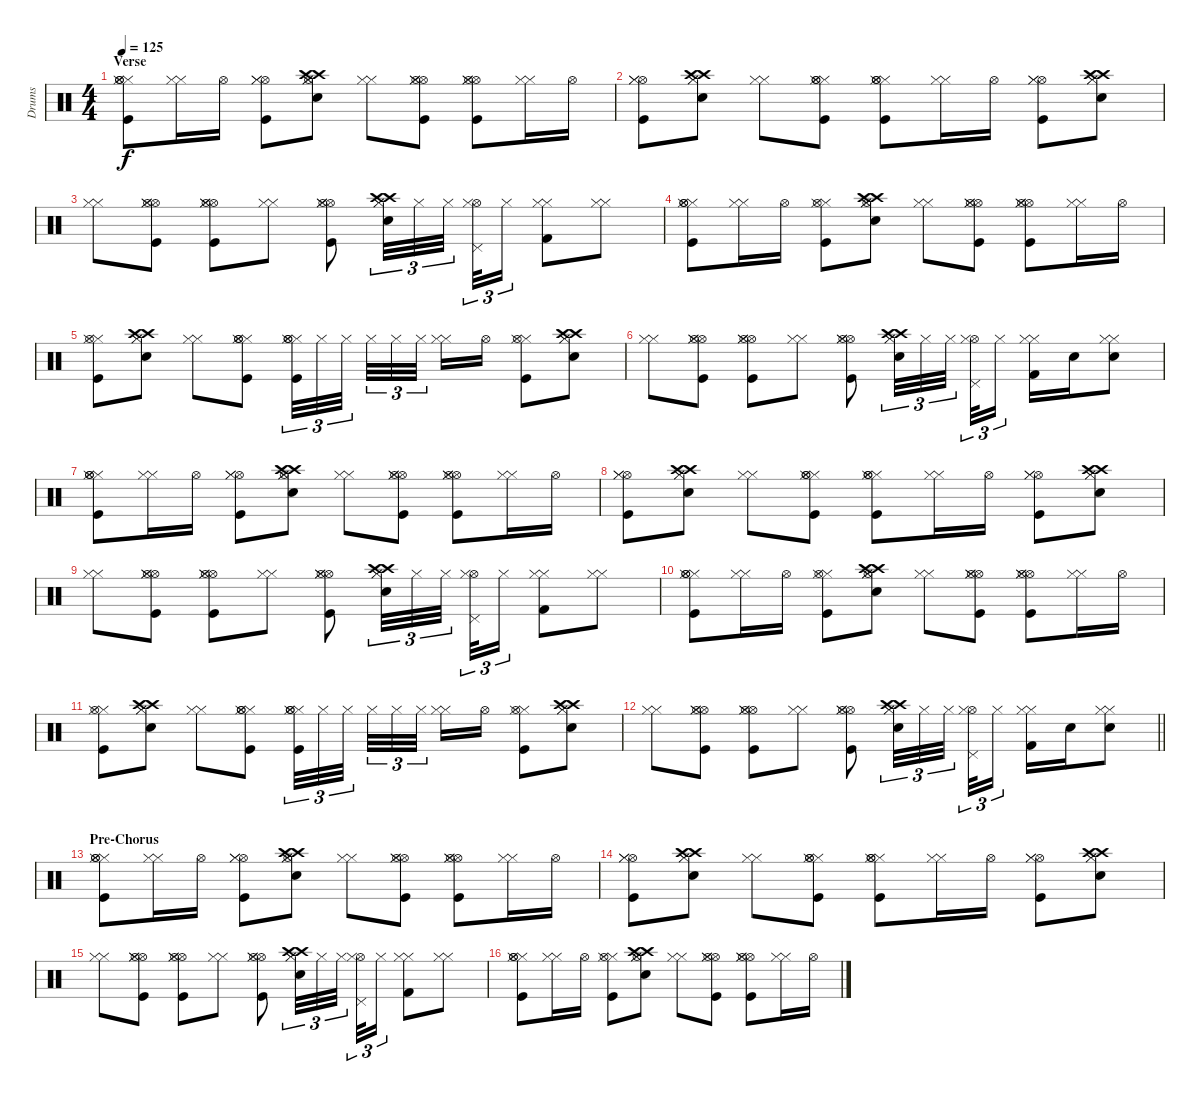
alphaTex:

\track ("Drums" "Drums") {instrument percussion}
\staff {score}
\articulation defaults
\ts (4 4)
\section ("" "Verse")
\tempo 125
\clef neutral
\ks c
("Hi-Hat (closed)" "Hi-Hat (open)" "Kick (hit)" "Hi-Hat (closed)" "Hi-Hat (open)").8{dy f} ("Hi-Hat (closed)" "Hi-Hat (closed)").16 "Hi-Hat (open)".16 ("Hi-Hat (open)" "Kick (hit)" "Hi-Hat (closed)" "Hi-Hat (closed)").8 ("Electric Snare (hit)" "Crash high (hit)" "Hi-Hat (closed)" "Crash high (hit)" "Hi-Hat (closed)" "Hi-Hat (open)").8 ("Hi-Hat (closed)" "Hi-Hat (closed)").8 ("Kick (hit)" "Hi-Hat (open)" "Hi-Hat (closed)" "Hi-Hat (open)" "Hi-Hat (closed)").8 ("Hi-Hat (open)" "Kick (hit)" "Hi-Hat (closed)" "Hi-Hat (open)" "Hi-Hat (closed)").8 ("Hi-Hat (closed)" "Hi-Hat (closed)").16 "Hi-Hat (open)".16 |
("Hi-Hat (open)" "Kick (hit)" "Hi-Hat (closed)" "Hi-Hat (closed)").8 ("Crash high (hit)" "Electric Snare (hit)" "Hi-Hat (closed)" "Crash high (hit)" "Hi-Hat (closed)").8 ("Hi-Hat (closed)" "Hi-Hat (closed)").8 ("Kick (hit)" "Hi-Hat (closed)" "Hi-Hat (open)" "Hi-Hat (closed)" "Hi-Hat (open)").8 ("Hi-Hat (closed)" "Hi-Hat (open)" "Kick (hit)" "Hi-Hat (closed)" "Hi-Hat (open)").8 ("Hi-Hat (closed)" "Hi-Hat (closed)").16 "Hi-Hat (open)".16 ("Hi-Hat (open)" "Kick (hit)" "Hi-Hat (closed)" "Hi-Hat (closed)").8 ("Crash high (hit)" "Hi-Hat (closed)" "Electric Snare (hit)" "Crash high (hit)" "Hi-Hat (closed)").8 |
("Hi-Hat (closed)" "Hi-Hat (closed)").8 ("Kick (hit)" "Hi-Hat (open)" "Hi-Hat (closed)" "Hi-Hat (open)" "Hi-Hat (closed)").8 ("Hi-Hat (open)" "Kick (hit)" "Hi-Hat (closed)" "Hi-Hat (open)" "Hi-Hat (closed)").8 ("Hi-Hat (closed)" "Hi-Hat (closed)").8 ("Kick (hit)" "Hi-Hat (open)" "Hi-Hat (closed)" "Hi-Hat (open)" "Hi-Hat (closed)").8 ("Electric Snare (hit)" "Crash high (hit)" "Hi-Hat (closed)" "Crash high (hit)" "Hi-Hat (closed)").32{tu (3 2)} "Hi-Hat (closed)".32{tu (3 2)} "Hi-Hat (closed)".32{tu (3 2) beam splitsecondary} ("Hi-Hat (open)" "Hi-Hat (closed)" "Pedal Hi-Hat (hit)").32{tu (3 2)} "Hi-Hat (closed)".16{tu (3 2)} ("Kick (hit) 2" "Hi-Hat (closed)" "Hi-Hat (closed)").8 ("Hi-Hat (closed)" "Hi-Hat (closed)").8 |
("Hi-Hat (closed)" "Hi-Hat (open)" "Hi-Hat (closed)" "Hi-Hat (open)" "Kick (hit)").8 ("Hi-Hat (closed)" "Hi-Hat (closed)").16 "Hi-Hat (open)".16 ("Hi-Hat (closed)" "Hi-Hat (open)" "Kick (hit)" "Hi-Hat (closed)").8 ("Crash high (hit)" "Hi-Hat (closed)" "Hi-Hat (open)" "Electric Snare (hit)" "Crash high (hit)" "Hi-Hat (closed)").8 ("Hi-Hat (closed)" "Hi-Hat (closed)").8 ("Hi-Hat (open)" "Hi-Hat (closed)" "Kick (hit)" "Hi-Hat (open)" "Hi-Hat (closed)").8 ("Hi-Hat (open)" "Hi-Hat (closed)" "Hi-Hat (open)" "Kick (hit)" "Hi-Hat (closed)").8 ("Hi-Hat (closed)" "Hi-Hat (closed)").16 "Hi-Hat (open)".16 |
("Hi-Hat (closed)" "Hi-Hat (open)" "Kick (hit)" "Hi-Hat (closed)").8 ("Crash high (hit)" "Hi-Hat (closed)" "Crash high (hit)" "Electric Snare (hit)" "Hi-Hat (closed)").8 ("Hi-Hat (closed)" "Hi-Hat (closed)").8 ("Hi-Hat (closed)" "Hi-Hat (open)" "Kick (hit)" "Hi-Hat (closed)" "Hi-Hat (open)").8 ("Hi-Hat (closed)" "Hi-Hat (open)" "Hi-Hat (closed)" "Hi-Hat (open)" "Kick (hit)").32{tu (3 2)} "Hi-Hat (closed)".32{tu (3 2)} "Hi-Hat (closed)".32{tu (3 2) beam splitsecondary} "Hi-Hat (closed)".32{tu (3 2)} "Hi-Hat (closed)".32{tu (3 2)} "Hi-Hat (closed)".32{tu (3 2) beam splitsecondary} ("Hi-Hat (closed)" "Hi-Hat (closed)").16 "Hi-Hat (open)".16 ("Hi-Hat (closed)" "Hi-Hat (open)" "Kick (hit)" "Hi-Hat (closed)").8 ("Crash high (hit)" "Hi-Hat (closed)" "Crash high (hit)" "Hi-Hat (closed)" "Electric Snare (hit)").8 |
("Hi-Hat (closed)" "Hi-Hat (closed)").8 ("Hi-Hat (open)" "Hi-Hat (closed)" "Kick (hit)" "Hi-Hat (open)" "Hi-Hat (closed)").8 ("Hi-Hat (open)" "Hi-Hat (closed)" "Hi-Hat (open)" "Kick (hit)" "Hi-Hat (closed)").8 ("Hi-Hat (closed)" "Hi-Hat (closed)").8 ("Hi-Hat (open)" "Hi-Hat (closed)" "Kick (hit)" "Hi-Hat (open)" "Hi-Hat (closed)").8 ("Crash high (hit)" "Hi-Hat (closed)" "Electric Snare (hit)" "Crash high (hit)" "Hi-Hat (closed)").32{tu (3 2)} "Hi-Hat (closed)".32{tu (3 2)} "Hi-Hat (closed)".32{tu (3 2) beam splitsecondary} ("Hi-Hat (open)" "Hi-Hat (closed)" "Pedal Hi-Hat (hit)").32{tu (3 2)} "Hi-Hat (closed)".16{tu (3 2)} ("Hi-Hat (closed)" "Kick (hit) 2" "Hi-Hat (closed)").16 "Electric Snare (hit)".16 ("Hi-Hat (closed)" "Electric Snare (hit)" "Hi-Hat (closed)").8 |
("Hi-Hat (closed)" "Hi-Hat (open)" "Kick (hit)" "Hi-Hat (closed)" "Hi-Hat (open)").8 ("Hi-Hat (closed)" "Hi-Hat (closed)").16 "Hi-Hat (open)".16 ("Hi-Hat (open)" "Kick (hit)" "Hi-Hat (closed)" "Hi-Hat (closed)").8 ("Electric Snare (hit)" "Crash high (hit)" "Hi-Hat (closed)" "Crash high (hit)" "Hi-Hat (closed)" "Hi-Hat (open)").8 ("Hi-Hat (closed)" "Hi-Hat (closed)").8 ("Kick (hit)" "Hi-Hat (open)" "Hi-Hat (closed)" "Hi-Hat (open)" "Hi-Hat (closed)").8 ("Hi-Hat (open)" "Kick (hit)" "Hi-Hat (closed)" "Hi-Hat (open)" "Hi-Hat (closed)").8 ("Hi-Hat (closed)" "Hi-Hat (closed)").16 "Hi-Hat (open)".16 |
("Hi-Hat (open)" "Kick (hit)" "Hi-Hat (closed)" "Hi-Hat (closed)").8 ("Crash high (hit)" "Electric Snare (hit)" "Hi-Hat (closed)" "Crash high (hit)" "Hi-Hat (closed)").8 ("Hi-Hat (closed)" "Hi-Hat (closed)").8 ("Kick (hit)" "Hi-Hat (closed)" "Hi-Hat (open)" "Hi-Hat (closed)" "Hi-Hat (open)").8 ("Hi-Hat (closed)" "Hi-Hat (open)" "Kick (hit)" "Hi-Hat (closed)" "Hi-Hat (open)").8 ("Hi-Hat (closed)" "Hi-Hat (closed)").16 "Hi-Hat (open)".16 ("Hi-Hat (open)" "Kick (hit)" "Hi-Hat (closed)" "Hi-Hat (closed)").8 ("Crash high (hit)" "Hi-Hat (closed)" "Electric Snare (hit)" "Crash high (hit)" "Hi-Hat (closed)").8 |
("Hi-Hat (closed)" "Hi-Hat (closed)").8 ("Kick (hit)" "Hi-Hat (open)" "Hi-Hat (closed)" "Hi-Hat (open)" "Hi-Hat (closed)").8 ("Hi-Hat (open)" "Kick (hit)" "Hi-Hat (closed)" "Hi-Hat (open)" "Hi-Hat (closed)").8 ("Hi-Hat (closed)" "Hi-Hat (closed)").8 ("Kick (hit)" "Hi-Hat (open)" "Hi-Hat (closed)" "Hi-Hat (open)" "Hi-Hat (closed)").8 ("Electric Snare (hit)" "Crash high (hit)" "Hi-Hat (closed)" "Crash high (hit)" "Hi-Hat (closed)").32{tu (3 2)} "Hi-Hat (closed)".32{tu (3 2)} "Hi-Hat (closed)".32{tu (3 2) beam splitsecondary} ("Hi-Hat (open)" "Hi-Hat (closed)" "Pedal Hi-Hat (hit)").32{tu (3 2)} "Hi-Hat (closed)".16{tu (3 2)} ("Kick (hit) 2" "Hi-Hat (closed)" "Hi-Hat (closed)").8 ("Hi-Hat (closed)" "Hi-Hat (closed)").8 |
("Hi-Hat (closed)" "Hi-Hat (open)" "Hi-Hat (closed)" "Hi-Hat (open)" "Kick (hit)").8 ("Hi-Hat (closed)" "Hi-Hat (closed)").16 "Hi-Hat (open)".16 ("Hi-Hat (closed)" "Hi-Hat (open)" "Kick (hit)" "Hi-Hat (closed)").8 ("Crash high (hit)" "Hi-Hat (closed)" "Hi-Hat (open)" "Electric Snare (hit)" "Crash high (hit)" "Hi-Hat (closed)").8 ("Hi-Hat (closed)" "Hi-Hat (closed)").8 ("Hi-Hat (open)" "Hi-Hat (closed)" "Kick (hit)" "Hi-Hat (open)" "Hi-Hat (closed)").8 ("Hi-Hat (open)" "Hi-Hat (closed)" "Hi-Hat (open)" "Kick (hit)" "Hi-Hat (closed)").8 ("Hi-Hat (closed)" "Hi-Hat (closed)").16 "Hi-Hat (open)".16 |
("Hi-Hat (closed)" "Hi-Hat (open)" "Kick (hit)" "Hi-Hat (closed)").8 ("Crash high (hit)" "Hi-Hat (closed)" "Crash high (hit)" "Electric Snare (hit)" "Hi-Hat (closed)").8 ("Hi-Hat (closed)" "Hi-Hat (closed)").8 ("Hi-Hat (closed)" "Hi-Hat (open)" "Kick (hit)" "Hi-Hat (closed)" "Hi-Hat (open)").8 ("Hi-Hat (closed)" "Hi-Hat (open)" "Hi-Hat (closed)" "Hi-Hat (open)" "Kick (hit)").32{tu (3 2)} "Hi-Hat (closed)".32{tu (3 2)} "Hi-Hat (closed)".32{tu (3 2) beam splitsecondary} "Hi-Hat (closed)".32{tu (3 2)} "Hi-Hat (closed)".32{tu (3 2)} "Hi-Hat (closed)".32{tu (3 2) beam splitsecondary} ("Hi-Hat (closed)" "Hi-Hat (closed)").16 "Hi-Hat (open)".16 ("Hi-Hat (closed)" "Hi-Hat (open)" "Kick (hit)" "Hi-Hat (closed)").8 ("Crash high (hit)" "Hi-Hat (closed)" "Crash high (hit)" "Hi-Hat (closed)" "Electric Snare (hit)").8 |
\barLineRight lightlight
("Hi-Hat (closed)" "Hi-Hat (closed)").8 ("Hi-Hat (open)" "Hi-Hat (closed)" "Kick (hit)" "Hi-Hat (open)" "Hi-Hat (closed)").8 ("Hi-Hat (open)" "Hi-Hat (closed)" "Hi-Hat (open)" "Kick (hit)" "Hi-Hat (closed)").8 ("Hi-Hat (closed)" "Hi-Hat (closed)").8 ("Hi-Hat (open)" "Hi-Hat (closed)" "Kick (hit)" "Hi-Hat (open)" "Hi-Hat (closed)").8 ("Crash high (hit)" "Hi-Hat (closed)" "Electric Snare (hit)" "Crash high (hit)" "Hi-Hat (closed)").32{tu (3 2)} "Hi-Hat (closed)".32{tu (3 2)} "Hi-Hat (closed)".32{tu (3 2) beam splitsecondary} ("Hi-Hat (open)" "Hi-Hat (closed)" "Pedal Hi-Hat (hit)").32{tu (3 2)} "Hi-Hat (closed)".16{tu (3 2)} ("Hi-Hat (closed)" "Kick (hit) 2" "Hi-Hat (closed)").16 "Electric Snare (hit)".16 ("Hi-Hat (closed)" "Electric Snare (hit)" "Hi-Hat (closed)").8 |
\section ("" "Pre-Chorus")
("Hi-Hat (closed)" "Hi-Hat (open)" "Kick (hit)" "Hi-Hat (closed)" "Hi-Hat (open)").8 ("Hi-Hat (closed)" "Hi-Hat (closed)").16 "Hi-Hat (open)".16 ("Hi-Hat (open)" "Kick (hit)" "Hi-Hat (closed)" "Hi-Hat (closed)").8 ("Electric Snare (hit)" "Crash high (hit)" "Hi-Hat (closed)" "Crash high (hit)" "Hi-Hat (closed)" "Hi-Hat (open)").8 ("Hi-Hat (closed)" "Hi-Hat (closed)").8 ("Kick (hit)" "Hi-Hat (open)" "Hi-Hat (closed)" "Hi-Hat (open)" "Hi-Hat (closed)").8 ("Hi-Hat (open)" "Kick (hit)" "Hi-Hat (closed)" "Hi-Hat (open)" "Hi-Hat (closed)").8 ("Hi-Hat (closed)" "Hi-Hat (closed)").16 "Hi-Hat (open)".16 |
("Hi-Hat (open)" "Kick (hit)" "Hi-Hat (closed)" "Hi-Hat (closed)").8 ("Crash high (hit)" "Electric Snare (hit)" "Hi-Hat (closed)" "Crash high (hit)" "Hi-Hat (closed)").8 ("Hi-Hat (closed)" "Hi-Hat (closed)").8 ("Kick (hit)" "Hi-Hat (closed)" "Hi-Hat (open)" "Hi-Hat (closed)" "Hi-Hat (open)").8 ("Hi-Hat (closed)" "Hi-Hat (open)" "Kick (hit)" "Hi-Hat (closed)" "Hi-Hat (open)").8 ("Hi-Hat (closed)" "Hi-Hat (closed)").16 "Hi-Hat (open)".16 ("Hi-Hat (open)" "Kick (hit)" "Hi-Hat (closed)" "Hi-Hat (closed)").8 ("Crash high (hit)" "Hi-Hat (closed)" "Electric Snare (hit)" "Crash high (hit)" "Hi-Hat (closed)").8 |
("Hi-Hat (closed)" "Hi-Hat (closed)").8 ("Kick (hit)" "Hi-Hat (open)" "Hi-Hat (closed)" "Hi-Hat (open)" "Hi-Hat (closed)").8 ("Hi-Hat (open)" "Kick (hit)" "Hi-Hat (closed)" "Hi-Hat (open)" "Hi-Hat (closed)").8 ("Hi-Hat (closed)" "Hi-Hat (closed)").8 ("Kick (hit)" "Hi-Hat (open)" "Hi-Hat (closed)" "Hi-Hat (open)" "Hi-Hat (closed)").8 ("Electric Snare (hit)" "Crash high (hit)" "Hi-Hat (closed)" "Crash high (hit)" "Hi-Hat (closed)").32{tu (3 2)} "Hi-Hat (closed)".32{tu (3 2)} "Hi-Hat (closed)".32{tu (3 2) beam splitsecondary} ("Hi-Hat (open)" "Hi-Hat (closed)" "Pedal Hi-Hat (hit)").32{tu (3 2)} "Hi-Hat (closed)".16{tu (3 2)} ("Kick (hit) 2" "Hi-Hat (closed)" "Hi-Hat (closed)").8 ("Hi-Hat (closed)" "Hi-Hat (closed)").8 |
("Hi-Hat (closed)" "Hi-Hat (open)" "Hi-Hat (closed)" "Hi-Hat (open)" "Kick (hit)").8 ("Hi-Hat (closed)" "Hi-Hat (closed)").16 "Hi-Hat (open)".16 ("Hi-Hat (closed)" "Hi-Hat (open)" "Kick (hit)" "Hi-Hat (closed)").8 ("Crash high (hit)" "Hi-Hat (closed)" "Hi-Hat (open)" "Electric Snare (hit)" "Crash high (hit)" "Hi-Hat (closed)").8 ("Hi-Hat (closed)" "Hi-Hat (closed)").8 ("Hi-Hat (open)" "Hi-Hat (closed)" "Kick (hit)" "Hi-Hat (open)" "Hi-Hat (closed)").8 ("Hi-Hat (open)" "Hi-Hat (closed)" "Hi-Hat (open)" "Kick (hit)" "Hi-Hat (closed)").8 ("Hi-Hat (closed)" "Hi-Hat (closed)").16 "Hi-Hat (open)".16
